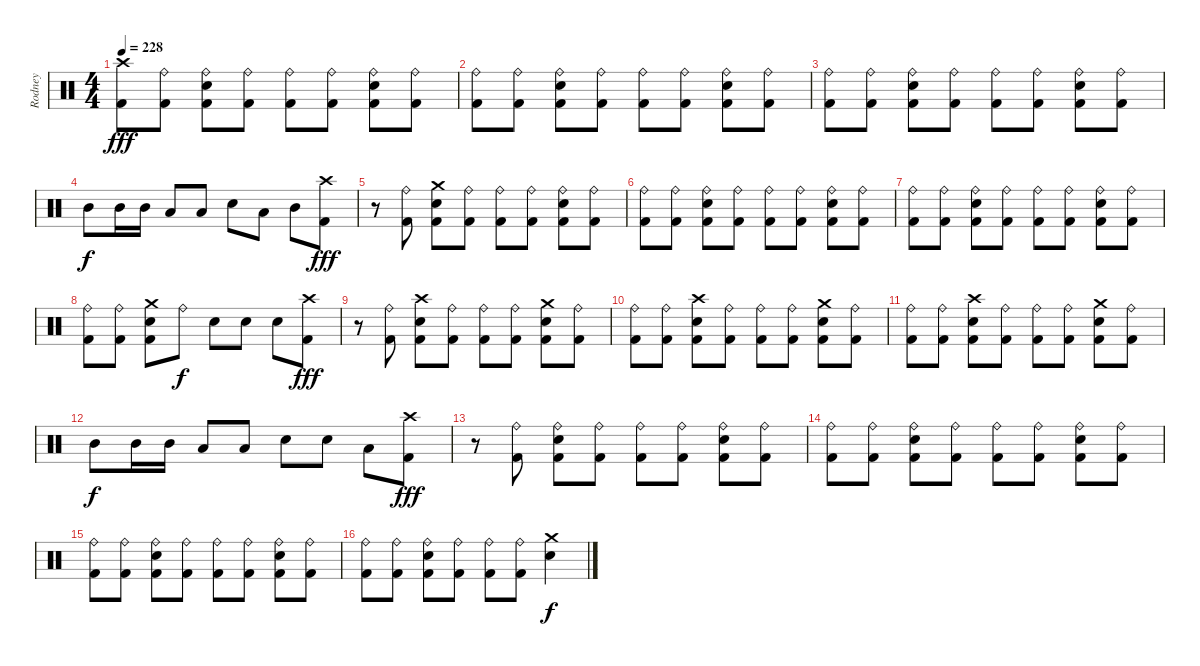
\track ("Rodney" "Rodney") {instrument percussion}
\staff {score}
\articulation defaults
\ts (4 4)
\tempo 228
\clef neutral
\ks c
("Crash high (hit)" "Kick (hit) 2").8{dy fff} ("Ride (bell)" "Kick (hit) 2").8 ("Ride (bell)" "Snare (hit) 2" "Kick (hit) 2").8 ("Ride (bell)" "Kick (hit) 2").8 ("Ride (bell)" "Kick (hit) 2").8 ("Ride (bell)" "Kick (hit) 2").8 ("Ride (bell)" "Snare (hit) 2" "Kick (hit) 2").8 ("Ride (bell)" "Kick (hit) 2").8 |
("Ride (bell)" "Kick (hit) 2").8 ("Ride (bell)" "Kick (hit) 2").8 ("Ride (bell)" "Snare (hit) 2" "Kick (hit) 2").8 ("Ride (bell)" "Kick (hit) 2").8 ("Ride (bell)" "Kick (hit) 2").8 ("Ride (bell)" "Kick (hit) 2").8 ("Ride (bell)" "Snare (hit) 2" "Kick (hit) 2").8 ("Ride (bell)" "Kick (hit) 2").8 |
("Ride (bell)" "Kick (hit) 2").8 ("Ride (bell)" "Kick (hit) 2").8 ("Ride (bell)" "Snare (hit) 2" "Kick (hit) 2").8 ("Ride (bell)" "Kick (hit) 2").8 ("Ride (bell)" "Kick (hit) 2").8 ("Ride (bell)" "Kick (hit) 2").8 ("Ride (bell)" "Snare (hit) 2" "Kick (hit) 2").8 ("Ride (bell)" "Kick (hit) 2").8 |
"Mid Tom (hit)".8{dy f} "Mid Tom (hit)".16 "Mid Tom (hit)".16 "Low Tom (hit)".8 "Low Tom (hit)".8 "Snare (hit) 2".8 "Low Tom (hit)".8 "Mid Tom (hit)".8 ("Crash high (hit)" "Kick (hit) 2").8{dy fff} |
r.8 ("Ride (bell)" "Kick (hit) 2").8 ("Crash medium (hit)" "Snare (hit) 2" "Kick (hit) 2").8 ("Ride (bell)" "Kick (hit) 2").8 ("Ride (bell)" "Kick (hit) 2").8 ("Ride (bell)" "Kick (hit) 2").8 ("Ride (bell)" "Snare (hit) 2" "Kick (hit) 2").8 ("Ride (bell)" "Kick (hit) 2").8 |
("Ride (bell)" "Kick (hit) 2").8 ("Ride (bell)" "Kick (hit) 2").8 ("Ride (bell)" "Snare (hit) 2" "Kick (hit) 2").8 ("Ride (bell)" "Kick (hit) 2").8 ("Ride (bell)" "Kick (hit) 2").8 ("Ride (bell)" "Kick (hit) 2").8 ("Ride (bell)" "Snare (hit) 2" "Kick (hit) 2").8 ("Ride (bell)" "Kick (hit) 2").8 |
("Ride (bell)" "Kick (hit) 2").8 ("Ride (bell)" "Kick (hit) 2").8 ("Ride (bell)" "Snare (hit) 2" "Kick (hit) 2").8 ("Ride (bell)" "Kick (hit) 2").8 ("Ride (bell)" "Kick (hit) 2").8 ("Ride (bell)" "Kick (hit) 2").8 ("Ride (bell)" "Snare (hit) 2" "Kick (hit) 2").8 ("Ride (bell)" "Kick (hit) 2").8 |
("Ride (bell)" "Kick (hit) 2").8 ("Ride (bell)" "Kick (hit) 2").8 ("Crash medium (hit)" "Snare (hit) 2" "Kick (hit) 2").8 "Ride (bell)".8{dy f} "Snare (hit) 2".8 "Snare (hit) 2".8 "Snare (hit) 2".8 ("Crash high (hit)" "Kick (hit) 2").8{dy fff} |
r.8 ("Ride (bell)" "Kick (hit) 2").8 ("Crash high (hit)" "Snare (hit) 2" "Kick (hit) 2").8 ("Ride (bell)" "Kick (hit) 2").8 ("Ride (bell)" "Kick (hit) 2").8 ("Ride (bell)" "Kick (hit) 2").8 ("Crash medium (hit)" "Snare (hit) 2" "Kick (hit) 2").8 ("Ride (bell)" "Kick (hit) 2").8 |
("Ride (bell)" "Kick (hit) 2").8 ("Ride (bell)" "Kick (hit) 2").8 ("Crash high (hit)" "Snare (hit) 2" "Kick (hit) 2").8 ("Ride (bell)" "Kick (hit) 2").8 ("Ride (bell)" "Kick (hit) 2").8 ("Ride (bell)" "Kick (hit) 2").8 ("Crash medium (hit)" "Snare (hit) 2" "Kick (hit) 2").8 ("Ride (bell)" "Kick (hit) 2").8 |
("Ride (bell)" "Kick (hit) 2").8 ("Ride (bell)" "Kick (hit) 2").8 ("Crash high (hit)" "Snare (hit) 2" "Kick (hit) 2").8 ("Ride (bell)" "Kick (hit) 2").8 ("Ride (bell)" "Kick (hit) 2").8 ("Ride (bell)" "Kick (hit) 2").8 ("Crash medium (hit)" "Snare (hit) 2" "Kick (hit) 2").8 ("Ride (bell)" "Kick (hit) 2").8 |
"Mid Tom (hit)".8{dy f} "Mid Tom (hit)".16 "Mid Tom (hit)".16 "Low Tom (hit)".8 "Low Tom (hit)".8 "Snare (hit) 2".8 "Snare (hit) 2".8 "Low Tom (hit)".8 ("Crash high (hit)" "Kick (hit) 2").8{dy fff} |
r.8 ("Ride (bell)" "Kick (hit) 2").8 ("Ride (bell)" "Snare (hit) 2" "Kick (hit) 2").8 ("Ride (bell)" "Kick (hit) 2").8 ("Ride (bell)" "Kick (hit) 2").8 ("Ride (bell)" "Kick (hit) 2").8 ("Ride (bell)" "Snare (hit) 2" "Kick (hit) 2").8 ("Ride (bell)" "Kick (hit) 2").8 |
("Ride (bell)" "Kick (hit) 2").8 ("Ride (bell)" "Kick (hit) 2").8 ("Ride (bell)" "Snare (hit) 2" "Kick (hit) 2").8 ("Ride (bell)" "Kick (hit) 2").8 ("Ride (bell)" "Kick (hit) 2").8 ("Ride (bell)" "Kick (hit) 2").8 ("Ride (bell)" "Snare (hit) 2" "Kick (hit) 2").8 ("Ride (bell)" "Kick (hit) 2").8 |
("Ride (bell)" "Kick (hit) 2").8 ("Ride (bell)" "Kick (hit) 2").8 ("Ride (bell)" "Snare (hit) 2" "Kick (hit) 2").8 ("Ride (bell)" "Kick (hit) 2").8 ("Ride (bell)" "Kick (hit) 2").8 ("Ride (bell)" "Kick (hit) 2").8 ("Ride (bell)" "Snare (hit) 2" "Kick (hit) 2").8 ("Ride (bell)" "Kick (hit) 2").8 |
("Ride (bell)" "Kick (hit) 2").8 ("Ride (bell)" "Kick (hit) 2").8 ("Ride (bell)" "Snare (hit) 2" "Kick (hit) 2").8 ("Ride (bell)" "Kick (hit) 2").8 ("Ride (bell)" "Kick (hit) 2").8 ("Ride (bell)" "Kick (hit) 2").8 ("Crash medium (hit)" "Snare (hit) 2").4{dy f}
